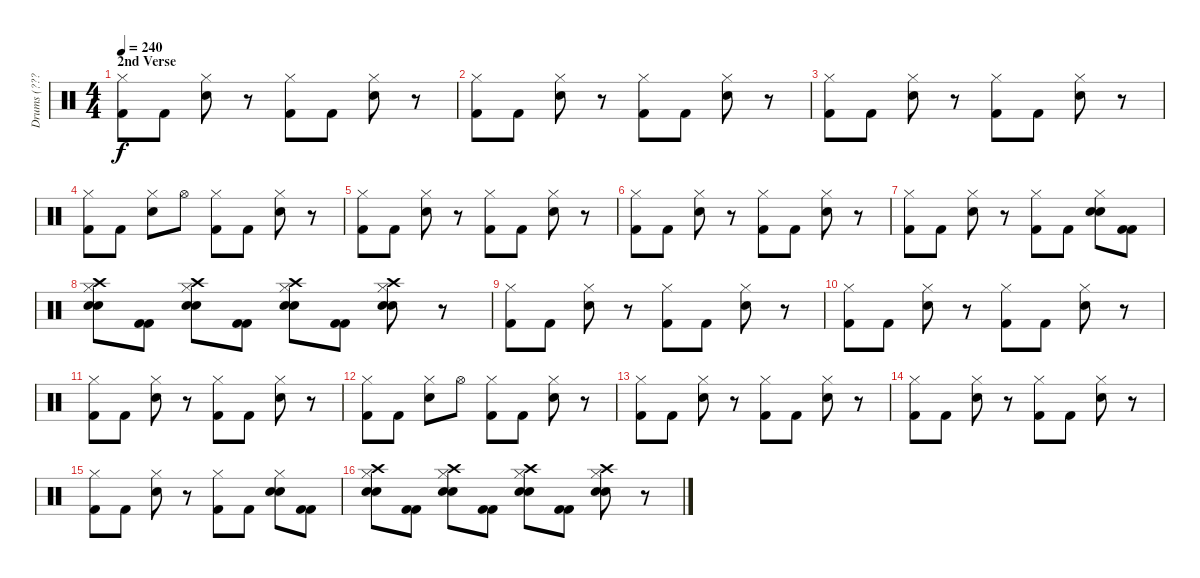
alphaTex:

\track ("Drums (????)" "Drums (???") {instrument percussion}
\staff {score}
\articulation defaults
\ts (4 4)
\section ("" "2nd Verse")
\tempo 240
\clef neutral
\ks c
("Hi-Hat (closed)" "Kick (hit) 2").8{dy f} "Kick (hit) 2".8 ("Hi-Hat (closed)" "Snare (hit) 2").8 r.8 ("Hi-Hat (closed)" "Kick (hit) 2").8 "Kick (hit) 2".8 ("Hi-Hat (closed)" "Snare (hit) 2").8 r.8 |
("Hi-Hat (closed)" "Kick (hit) 2").8 "Kick (hit) 2".8 ("Hi-Hat (closed)" "Snare (hit) 2").8 r.8 ("Hi-Hat (closed)" "Kick (hit) 2").8 "Kick (hit) 2".8 ("Hi-Hat (closed)" "Snare (hit) 2").8 r.8 |
("Hi-Hat (closed)" "Kick (hit) 2").8 "Kick (hit) 2".8 ("Hi-Hat (closed)" "Snare (hit) 2").8 r.8 ("Hi-Hat (closed)" "Kick (hit) 2").8 "Kick (hit) 2".8 ("Hi-Hat (closed)" "Snare (hit) 2").8 r.8 |
("Hi-Hat (closed)" "Kick (hit) 2").8 "Kick (hit) 2".8 ("Hi-Hat (closed)" "Snare (hit) 2").8 "Hi-Hat (open)".8 ("Hi-Hat (closed)" "Kick (hit) 2").8 "Kick (hit) 2".8 ("Hi-Hat (closed)" "Snare (hit) 2").8 r.8 |
("Hi-Hat (closed)" "Kick (hit) 2").8 "Kick (hit) 2".8 ("Hi-Hat (closed)" "Snare (hit) 2").8 r.8 ("Hi-Hat (closed)" "Kick (hit) 2").8 "Kick (hit) 2".8 ("Hi-Hat (closed)" "Snare (hit) 2").8 r.8 |
("Hi-Hat (closed)" "Kick (hit) 2").8 "Kick (hit) 2".8 ("Hi-Hat (closed)" "Snare (hit) 2").8 r.8 ("Hi-Hat (closed)" "Kick (hit) 2").8 "Kick (hit) 2".8 ("Hi-Hat (closed)" "Snare (hit) 2").8 r.8 |
("Hi-Hat (closed)" "Kick (hit) 2").8 "Kick (hit) 2".8 ("Hi-Hat (closed)" "Snare (hit) 2").8 r.8 ("Hi-Hat (closed)" "Kick (hit) 2").8 "Kick (hit) 2".8 ("Hi-Hat (closed)" "Snare (hit) 2" "Snare (hit) 2").8 ("Kick (hit) 2" "Kick (hit) 2").8 |
("Hi-Hat (closed)" "Snare (hit) 2" "Snare (hit) 2" "Crash high (hit)").8 ("Kick (hit) 2" "Kick (hit) 2").8 ("Hi-Hat (closed)" "Snare (hit) 2" "Snare (hit) 2" "Crash high (hit)").8 ("Kick (hit) 2" "Kick (hit) 2").8 ("Hi-Hat (closed)" "Snare (hit) 2" "Snare (hit) 2" "Crash high (hit)").8 ("Kick (hit) 2" "Kick (hit) 2").8 ("Hi-Hat (closed)" "Snare (hit) 2" "Snare (hit) 2" "Crash high (hit)").8 r.8 |
("Hi-Hat (closed)" "Kick (hit) 2").8 "Kick (hit) 2".8 ("Hi-Hat (closed)" "Snare (hit) 2").8 r.8 ("Hi-Hat (closed)" "Kick (hit) 2").8 "Kick (hit) 2".8 ("Hi-Hat (closed)" "Snare (hit) 2").8 r.8 |
("Hi-Hat (closed)" "Kick (hit) 2").8 "Kick (hit) 2".8 ("Hi-Hat (closed)" "Snare (hit) 2").8 r.8 ("Hi-Hat (closed)" "Kick (hit) 2").8 "Kick (hit) 2".8 ("Hi-Hat (closed)" "Snare (hit) 2").8 r.8 |
("Hi-Hat (closed)" "Kick (hit) 2").8 "Kick (hit) 2".8 ("Hi-Hat (closed)" "Snare (hit) 2").8 r.8 ("Hi-Hat (closed)" "Kick (hit) 2").8 "Kick (hit) 2".8 ("Hi-Hat (closed)" "Snare (hit) 2").8 r.8 |
("Hi-Hat (closed)" "Kick (hit) 2").8 "Kick (hit) 2".8 ("Hi-Hat (closed)" "Snare (hit) 2").8 "Hi-Hat (open)".8 ("Hi-Hat (closed)" "Kick (hit) 2").8 "Kick (hit) 2".8 ("Hi-Hat (closed)" "Snare (hit) 2").8 r.8 |
("Hi-Hat (closed)" "Kick (hit) 2").8 "Kick (hit) 2".8 ("Hi-Hat (closed)" "Snare (hit) 2").8 r.8 ("Hi-Hat (closed)" "Kick (hit) 2").8 "Kick (hit) 2".8 ("Hi-Hat (closed)" "Snare (hit) 2").8 r.8 |
("Hi-Hat (closed)" "Kick (hit) 2").8 "Kick (hit) 2".8 ("Hi-Hat (closed)" "Snare (hit) 2").8 r.8 ("Hi-Hat (closed)" "Kick (hit) 2").8 "Kick (hit) 2".8 ("Hi-Hat (closed)" "Snare (hit) 2").8 r.8 |
("Hi-Hat (closed)" "Kick (hit) 2").8 "Kick (hit) 2".8 ("Hi-Hat (closed)" "Snare (hit) 2").8 r.8 ("Hi-Hat (closed)" "Kick (hit) 2").8 "Kick (hit) 2".8 ("Hi-Hat (closed)" "Snare (hit) 2" "Snare (hit) 2").8 ("Kick (hit) 2" "Kick (hit) 2").8 |
("Hi-Hat (closed)" "Snare (hit) 2" "Snare (hit) 2" "Crash high (hit)").8 ("Kick (hit) 2" "Kick (hit) 2").8 ("Hi-Hat (closed)" "Snare (hit) 2" "Snare (hit) 2" "Crash high (hit)").8 ("Kick (hit) 2" "Kick (hit) 2").8 ("Hi-Hat (closed)" "Snare (hit) 2" "Snare (hit) 2" "Crash high (hit)").8 ("Kick (hit) 2" "Kick (hit) 2").8 ("Hi-Hat (closed)" "Snare (hit) 2" "Snare (hit) 2" "Crash high (hit)").8 r.8
